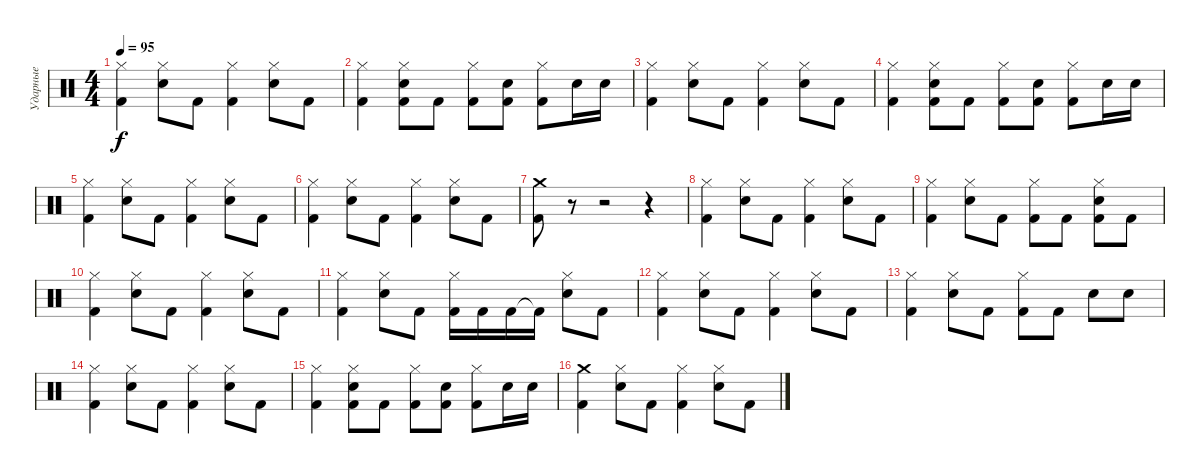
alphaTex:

\track ("Ударные" "Ударные") {instrument percussion}
\staff {score}
\articulation defaults
\ts (4 4)
\tempo 95
\clef neutral
\ks c
("Hi-Hat (closed)" "Kick (hit) 2").4{dy f} ("Hi-Hat (closed)" "Snare (hit) 2").8 "Kick (hit) 2".8 ("Hi-Hat (closed)" "Kick (hit) 2").4 ("Hi-Hat (closed)" "Snare (hit) 2").8 "Kick (hit) 2".8 |
("Hi-Hat (closed)" "Kick (hit) 2").4 ("Hi-Hat (closed)" "Snare (hit) 2" "Kick (hit) 2").8 "Kick (hit) 2".8 ("Hi-Hat (closed)" "Kick (hit) 2").8 ("Snare (hit) 2" "Kick (hit) 2").8 ("Hi-Hat (closed)" "Kick (hit) 2").8 "Snare (hit) 2".16 "Snare (hit) 2".16 |
("Hi-Hat (closed)" "Kick (hit) 2").4 ("Hi-Hat (closed)" "Snare (hit) 2").8 "Kick (hit) 2".8 ("Hi-Hat (closed)" "Kick (hit) 2").4 ("Hi-Hat (closed)" "Snare (hit) 2").8 "Kick (hit) 2".8 |
("Hi-Hat (closed)" "Kick (hit) 2").4 ("Hi-Hat (closed)" "Snare (hit) 2" "Kick (hit) 2").8 "Kick (hit) 2".8 ("Hi-Hat (closed)" "Kick (hit) 2").8 ("Snare (hit) 2" "Kick (hit) 2").8 ("Hi-Hat (closed)" "Kick (hit) 2").8 "Snare (hit) 2".16 "Snare (hit) 2".16 |
("Hi-Hat (closed)" "Kick (hit) 2").4 ("Hi-Hat (closed)" "Snare (hit) 2").8 "Kick (hit) 2".8 ("Hi-Hat (closed)" "Kick (hit) 2").4 ("Hi-Hat (closed)" "Snare (hit) 2").8 "Kick (hit) 2".8 |
("Hi-Hat (closed)" "Kick (hit) 2").4 ("Hi-Hat (closed)" "Snare (hit) 2").8 "Kick (hit) 2".8 ("Hi-Hat (closed)" "Kick (hit) 2").4 ("Hi-Hat (closed)" "Snare (hit) 2").8 "Kick (hit) 2".8 |
("Crash medium (hit)" "Kick (hit) 2").8 r.8 r.2 r.4 |
("Hi-Hat (closed)" "Kick (hit) 2").4 ("Hi-Hat (closed)" "Snare (hit) 2").8 "Kick (hit) 2".8 ("Hi-Hat (closed)" "Kick (hit) 2").4 ("Hi-Hat (closed)" "Snare (hit) 2").8 "Kick (hit) 2".8 |
("Hi-Hat (closed)" "Kick (hit) 2").4 ("Hi-Hat (closed)" "Snare (hit) 2").8 "Kick (hit) 2".8 ("Hi-Hat (closed)" "Kick (hit) 2").8 "Kick (hit) 2".8 ("Hi-Hat (closed)" "Snare (hit) 2" "Kick (hit) 2").8 "Kick (hit) 2".8 |
("Hi-Hat (closed)" "Kick (hit) 2").4 ("Hi-Hat (closed)" "Snare (hit) 2").8 "Kick (hit) 2".8 ("Hi-Hat (closed)" "Kick (hit) 2").4 ("Hi-Hat (closed)" "Snare (hit) 2").8 "Kick (hit) 2".8 |
("Hi-Hat (closed)" "Kick (hit) 2").4 ("Hi-Hat (closed)" "Snare (hit) 2").8 "Kick (hit) 2".8 ("Hi-Hat (closed)" "Kick (hit) 2").16 "Kick (hit) 2".16 "Kick (hit) 2".16 "Kick (hit) 2"{t}.16 ("Hi-Hat (closed)" "Snare (hit) 2").8 "Kick (hit) 2".8 |
("Hi-Hat (closed)" "Kick (hit) 2").4 ("Hi-Hat (closed)" "Snare (hit) 2").8 "Kick (hit) 2".8 ("Hi-Hat (closed)" "Kick (hit) 2").4 ("Hi-Hat (closed)" "Snare (hit) 2").8 "Kick (hit) 2".8 |
("Hi-Hat (closed)" "Kick (hit) 2").4 ("Hi-Hat (closed)" "Snare (hit) 2").8 "Kick (hit) 2".8 ("Hi-Hat (closed)" "Kick (hit) 2").8 "Kick (hit) 2".8 "Snare (hit) 2".8 "Snare (hit) 2".8 |
("Hi-Hat (closed)" "Kick (hit) 2").4 ("Hi-Hat (closed)" "Snare (hit) 2").8 "Kick (hit) 2".8 ("Hi-Hat (closed)" "Kick (hit) 2").4 ("Hi-Hat (closed)" "Snare (hit) 2").8 "Kick (hit) 2".8 |
("Hi-Hat (closed)" "Kick (hit) 2").4 ("Hi-Hat (closed)" "Snare (hit) 2" "Kick (hit) 2").8 "Kick (hit) 2".8 ("Hi-Hat (closed)" "Kick (hit) 2").8 ("Snare (hit) 2" "Kick (hit) 2").8 ("Hi-Hat (closed)" "Kick (hit) 2").8 "Snare (hit) 2".16 "Snare (hit) 2".16 |
("Crash medium (hit)" "Kick (hit) 2").4 ("Hi-Hat (closed)" "Snare (hit) 2").8 "Kick (hit) 2".8 ("Hi-Hat (closed)" "Kick (hit) 2").4 ("Hi-Hat (closed)" "Snare (hit) 2").8 "Kick (hit) 2".8
